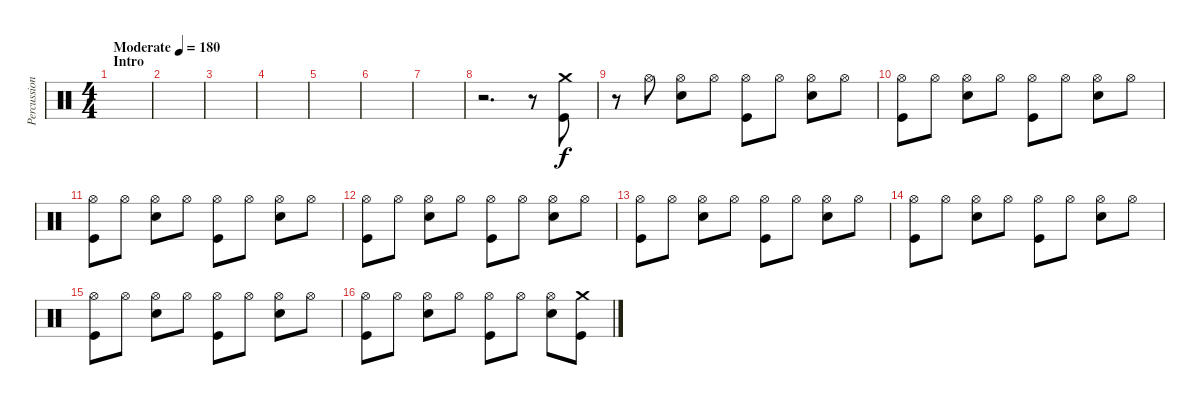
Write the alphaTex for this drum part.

\track ("Percussion" "Percussion") {instrument percussion}
\staff {score}
\articulation defaults
\ts (4 4)
\section ("" "Intro")
\tempo (180 "Moderate")
\clef neutral
\ks c
|
|
|
|
|
|
|
r.2{d} r.8 ("Crash medium (hit)" "Kick (hit)").8 |
r.8 "Hi-Hat (open)".8 ("Hi-Hat (open)" "Snare (hit) 2").8 "Hi-Hat (open)".8 ("Hi-Hat (open)" "Kick (hit)").8 "Hi-Hat (open)".8 ("Hi-Hat (open)" "Snare (hit) 2").8 "Hi-Hat (open)".8 |
("Hi-Hat (open)" "Kick (hit)").8 "Hi-Hat (open)".8 ("Hi-Hat (open)" "Snare (hit) 2").8 "Hi-Hat (open)".8 ("Hi-Hat (open)" "Kick (hit)").8 "Hi-Hat (open)".8 ("Hi-Hat (open)" "Snare (hit) 2").8 "Hi-Hat (open)".8 |
("Hi-Hat (open)" "Kick (hit)").8 "Hi-Hat (open)".8 ("Hi-Hat (open)" "Snare (hit) 2").8 "Hi-Hat (open)".8 ("Hi-Hat (open)" "Kick (hit)").8 "Hi-Hat (open)".8 ("Hi-Hat (open)" "Snare (hit) 2").8 "Hi-Hat (open)".8 |
("Hi-Hat (open)" "Kick (hit)").8 "Hi-Hat (open)".8 ("Hi-Hat (open)" "Snare (hit) 2").8 "Hi-Hat (open)".8 ("Hi-Hat (open)" "Kick (hit)").8 "Hi-Hat (open)".8 ("Hi-Hat (open)" "Snare (hit) 2").8 "Hi-Hat (open)".8 |
("Hi-Hat (open)" "Kick (hit)").8 "Hi-Hat (open)".8 ("Hi-Hat (open)" "Snare (hit) 2").8 "Hi-Hat (open)".8 ("Hi-Hat (open)" "Kick (hit)").8 "Hi-Hat (open)".8 ("Hi-Hat (open)" "Snare (hit) 2").8 "Hi-Hat (open)".8 |
("Hi-Hat (open)" "Kick (hit)").8 "Hi-Hat (open)".8 ("Hi-Hat (open)" "Snare (hit) 2").8 "Hi-Hat (open)".8 ("Hi-Hat (open)" "Kick (hit)").8 "Hi-Hat (open)".8 ("Hi-Hat (open)" "Snare (hit) 2").8 "Hi-Hat (open)".8 |
("Hi-Hat (open)" "Kick (hit)").8 "Hi-Hat (open)".8 ("Hi-Hat (open)" "Snare (hit) 2").8 "Hi-Hat (open)".8 ("Hi-Hat (open)" "Kick (hit)").8 "Hi-Hat (open)".8 ("Hi-Hat (open)" "Snare (hit) 2").8 "Hi-Hat (open)".8 |
("Hi-Hat (open)" "Kick (hit)").8 "Hi-Hat (open)".8 ("Hi-Hat (open)" "Snare (hit) 2").8 "Hi-Hat (open)".8 ("Hi-Hat (open)" "Kick (hit)").8 "Hi-Hat (open)".8 ("Hi-Hat (open)" "Snare (hit) 2").8 ("Crash medium (hit)" "Kick (hit)").8
